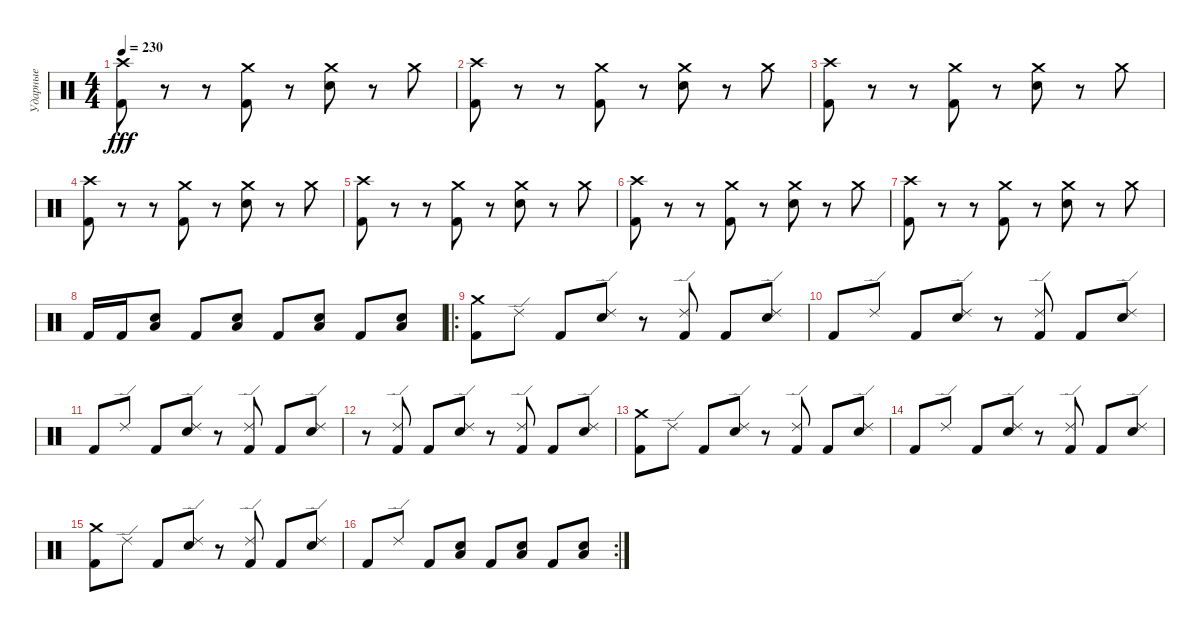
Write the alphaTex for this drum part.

\track ("Ударные" "Ударные") {instrument percussion}
\staff {score}
\articulation defaults
\ts (4 4)
\tempo 230
\clef neutral
\ks c
("Kick (hit) 2" "Crash high (hit)").8{dy fff} r.8 r.8 ("Kick (hit) 2" "Crash medium (hit)").8 r.8 ("Electric Snare (hit)" "Crash medium (hit)").8 r.8 "Crash medium (hit)".8 |
("Kick (hit) 2" "Crash high (hit)").8 r.8 r.8 ("Kick (hit) 2" "Crash medium (hit)").8 r.8 ("Electric Snare (hit)" "Crash medium (hit)").8 r.8 "Crash medium (hit)".8 |
("Kick (hit) 2" "Crash high (hit)").8 r.8 r.8 ("Kick (hit) 2" "Crash medium (hit)").8 r.8 ("Electric Snare (hit)" "Crash medium (hit)").8 r.8 "Crash medium (hit)".8 |
("Kick (hit) 2" "Crash high (hit)").8 r.8 r.8 ("Kick (hit) 2" "Crash medium (hit)").8 r.8 ("Electric Snare (hit)" "Crash medium (hit)").8 r.8 "Crash medium (hit)".8 |
("Kick (hit) 2" "Crash high (hit)").8 r.8 r.8 ("Kick (hit) 2" "Crash medium (hit)").8 r.8 ("Electric Snare (hit)" "Crash medium (hit)").8 r.8 "Crash medium (hit)".8 |
("Kick (hit) 2" "Crash high (hit)").8 r.8 r.8 ("Kick (hit) 2" "Crash medium (hit)").8 r.8 ("Electric Snare (hit)" "Crash medium (hit)").8 r.8 "Crash medium (hit)".8 |
("Kick (hit) 2" "Crash high (hit)").8 r.8 r.8 ("Kick (hit) 2" "Crash medium (hit)").8 r.8 ("Electric Snare (hit)" "Crash medium (hit)").8 r.8 "Crash medium (hit)".8 |
"Kick (hit) 2".16 "Kick (hit) 2".16 ("Electric Snare (hit)" "Low Tom (hit)").8 "Kick (hit) 2".8 ("Electric Snare (hit)" "Low Tom (hit)").8 "Kick (hit) 2".8 ("Electric Snare (hit)" "Low Tom (hit)").8 "Kick (hit) 2".8 ("Electric Snare (hit)" "Low Tom (hit)").8 |
\ro
("Kick (hit) 2" "Crash medium (hit)").8 "Ride (edge) 2".8 "Kick (hit) 2".8 ("Electric Snare (hit)" "Ride (edge) 2").8 r.8 ("Kick (hit) 2" "Ride (edge) 2").8 "Kick (hit) 2".8 ("Electric Snare (hit)" "Ride (edge) 2").8 |
"Kick (hit) 2".8 "Ride (edge) 2".8 "Kick (hit) 2".8 ("Electric Snare (hit)" "Ride (edge) 2").8 r.8 ("Kick (hit) 2" "Ride (edge) 2").8 "Kick (hit) 2".8 ("Electric Snare (hit)" "Ride (edge) 2").8 |
"Kick (hit) 2".8 "Ride (edge) 2".8 "Kick (hit) 2".8 ("Electric Snare (hit)" "Ride (edge) 2").8 r.8 ("Kick (hit) 2" "Ride (edge) 2").8 "Kick (hit) 2".8 ("Electric Snare (hit)" "Ride (edge) 2").8 |
r.8 ("Kick (hit) 2" "Ride (edge) 2").8 "Kick (hit) 2".8 ("Electric Snare (hit)" "Ride (edge) 2").8 r.8 ("Kick (hit) 2" "Ride (edge) 2").8 "Kick (hit) 2".8 ("Electric Snare (hit)" "Ride (edge) 2").8 |
("Kick (hit) 2" "Crash medium (hit)").8 "Ride (edge) 2".8 "Kick (hit) 2".8 ("Electric Snare (hit)" "Ride (edge) 2").8 r.8 ("Kick (hit) 2" "Ride (edge) 2").8 "Kick (hit) 2".8 ("Electric Snare (hit)" "Ride (edge) 2").8 |
"Kick (hit) 2".8 "Ride (edge) 2".8 "Kick (hit) 2".8 ("Electric Snare (hit)" "Ride (edge) 2").8 r.8 ("Kick (hit) 2" "Ride (edge) 2").8 "Kick (hit) 2".8 ("Electric Snare (hit)" "Ride (edge) 2").8 |
("Kick (hit) 2" "Crash medium (hit)").8 "Ride (edge) 2".8 "Kick (hit) 2".8 ("Electric Snare (hit)" "Ride (edge) 2").8 r.8 ("Kick (hit) 2" "Ride (edge) 2").8 "Kick (hit) 2".8 ("Electric Snare (hit)" "Ride (edge) 2").8 |
\rc 2 "Kick (hit) 2".8 "Ride (edge) 2".8 "Kick (hit) 2".8
("Electric Snare (hit)" "Low Tom (hit)").8 "Kick (hit) 2".8 ("Electric Snare (hit)" "Low Tom (hit)").8 "Kick (hit) 2".8 ("Electric Snare (hit)" "Low Tom (hit)").8
